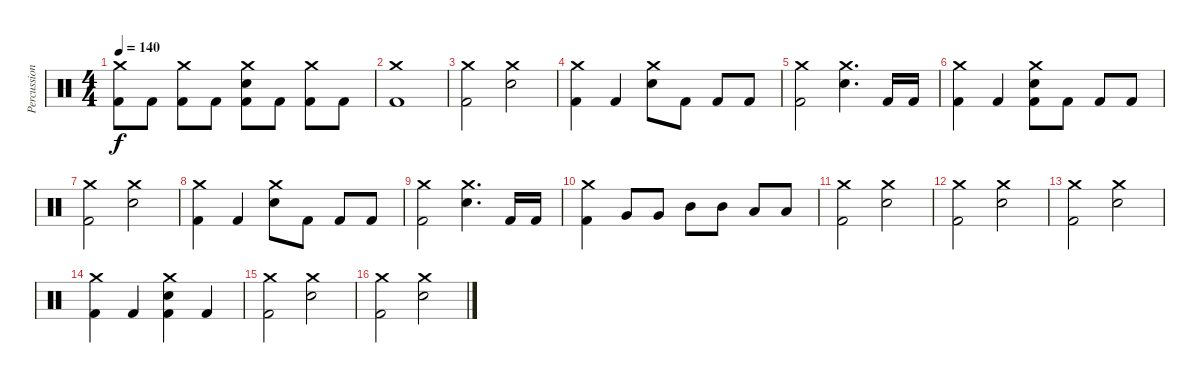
\track ("Percussion" "Percussion") {instrument percussion}
\staff {score}
\articulation defaults
\ts (4 4)
\tempo 140
\clef neutral
\ks c
("Crash medium (hit)" "Kick (hit) 2").8{dy f} "Kick (hit) 2".8 ("Crash medium (hit)" "Kick (hit) 2").8 "Kick (hit) 2".8 ("Crash medium (hit)" "Electric Snare (hit)" "Kick (hit) 2").8 "Kick (hit) 2".8 ("Crash medium (hit)" "Kick (hit) 2").8 "Kick (hit) 2".8 |
("Crash medium (hit)" "Kick (hit) 2").1 |
("Crash medium (hit)" "Kick (hit) 2").2 ("Crash medium (hit)" "Electric Snare (hit)").2 |
("Crash medium (hit)" "Kick (hit) 2").4 "Kick (hit) 2".4 ("Crash medium (hit)" "Electric Snare (hit)").8 "Kick (hit) 2".8 "Kick (hit) 2".8 "Kick (hit) 2".8 |
("Crash medium (hit)" "Kick (hit) 2").2 ("Crash medium (hit)" "Electric Snare (hit)").4{d} "Kick (hit) 2".16 "Kick (hit) 2".16 |
("Crash medium (hit)" "Kick (hit) 2").4 "Kick (hit) 2".4 ("Crash medium (hit)" "Electric Snare (hit)" "Kick (hit) 2").8 "Kick (hit) 2".8 "Kick (hit) 2".8 "Kick (hit) 2".8 |
("Crash medium (hit)" "Kick (hit) 2").2 ("Crash medium (hit)" "Electric Snare (hit)").2 |
("Crash medium (hit)" "Kick (hit) 2").4 "Kick (hit) 2".4 ("Crash medium (hit)" "Electric Snare (hit)").8 "Kick (hit) 2".8 "Kick (hit) 2".8 "Kick (hit) 2".8 |
("Crash medium (hit)" "Kick (hit) 2").2 ("Crash medium (hit)" "Electric Snare (hit)").4{d} "Kick (hit) 2".16 "Kick (hit) 2".16 |
("Crash medium (hit)" "Kick (hit) 2").4 "Very Low Tom (hit)".8 "Very Low Tom (hit)".8 "Mid Tom (hit)".8 "Mid Tom (hit)".8 "Low Tom (hit)".8 "Low Tom (hit)".8 |
("Crash medium (hit)" "Kick (hit) 2").2 ("Crash medium (hit)" "Electric Snare (hit)").2 |
("Crash medium (hit)" "Kick (hit) 2").2 ("Crash medium (hit)" "Electric Snare (hit)").2 |
("Crash medium (hit)" "Kick (hit) 2").2 ("Crash medium (hit)" "Electric Snare (hit)").2 |
("Crash medium (hit)" "Kick (hit) 2").4 "Kick (hit) 2".4 ("Crash medium (hit)" "Electric Snare (hit)" "Kick (hit) 2").4 "Kick (hit) 2".4 |
("Crash medium (hit)" "Kick (hit) 2").2 ("Crash medium (hit)" "Electric Snare (hit)").2 |
("Crash medium (hit)" "Kick (hit) 2").2 ("Crash medium (hit)" "Electric Snare (hit)").2
